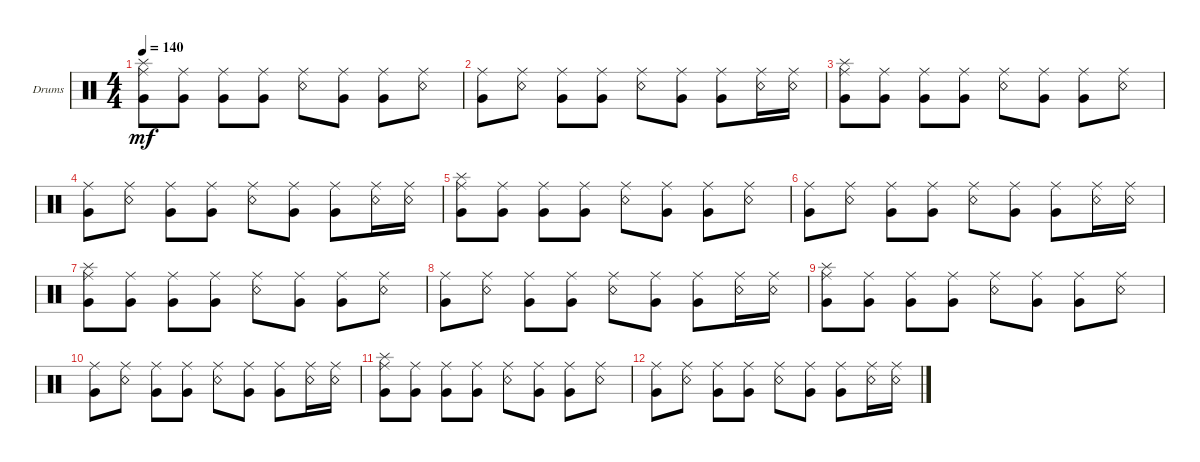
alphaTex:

\defaultSystemsLayout 4
\bracketExtendMode groupsimilarinstruments
\firstSystemTrackNameOrientation horizontal
\otherSystemsTrackNameOrientation horizontal
\track ("Drumkit" "Drums") {instrument percussion}
\staff {score}
\articulation defaults
\ts (4 4)
\tempo 140
\clef neutral
\ks c
("Very Low Tom (hit)" "Ride (middle)" "Splash (hit)").8{dy mf} ("Very Low Tom (hit)" "Ride (middle)").8 ("Very Low Tom (hit)" "Ride (middle)").8 ("Very Low Tom (hit)" "Ride (middle)").8 ("Snare (rim shot)" "Ride (middle)").8 ("Very Low Tom (hit)" "Ride (middle)").8 ("Very Low Tom (hit)" "Ride (middle)").8 ("Snare (rim shot)" "Ride (middle)").8 |
("Very Low Tom (hit)" "Ride (middle)").8 ("Snare (rim shot)" "Ride (middle)").8 ("Very Low Tom (hit)" "Ride (middle)").8 ("Very Low Tom (hit)" "Ride (middle)").8 ("Snare (rim shot)" "Ride (middle)").8 ("Very Low Tom (hit)" "Ride (middle)").8 ("Very Low Tom (hit)" "Ride (middle)").8 ("Snare (rim shot)" "Ride (middle)").16 ("Snare (rim shot)" "Ride (middle)").16 |
("Very Low Tom (hit)" "Ride (middle)" "Splash (hit)").8 ("Very Low Tom (hit)" "Ride (middle)").8 ("Very Low Tom (hit)" "Ride (middle)").8 ("Very Low Tom (hit)" "Ride (middle)").8 ("Snare (rim shot)" "Ride (middle)").8 ("Very Low Tom (hit)" "Ride (middle)").8 ("Very Low Tom (hit)" "Ride (middle)").8 ("Snare (rim shot)" "Ride (middle)").8 |
("Very Low Tom (hit)" "Ride (middle)").8 ("Snare (rim shot)" "Ride (middle)").8 ("Very Low Tom (hit)" "Ride (middle)").8 ("Very Low Tom (hit)" "Ride (middle)").8 ("Snare (rim shot)" "Ride (middle)").8 ("Very Low Tom (hit)" "Ride (middle)").8 ("Very Low Tom (hit)" "Ride (middle)").8 ("Snare (rim shot)" "Ride (middle)").16 ("Snare (rim shot)" "Ride (middle)").16 |
("Very Low Tom (hit)" "Ride (middle)" "Splash (hit)").8 ("Very Low Tom (hit)" "Ride (middle)").8 ("Very Low Tom (hit)" "Ride (middle)").8 ("Very Low Tom (hit)" "Ride (middle)").8 ("Snare (rim shot)" "Ride (middle)").8 ("Very Low Tom (hit)" "Ride (middle)").8 ("Very Low Tom (hit)" "Ride (middle)").8 ("Snare (rim shot)" "Ride (middle)").8 |
("Very Low Tom (hit)" "Ride (middle)").8 ("Snare (rim shot)" "Ride (middle)").8 ("Very Low Tom (hit)" "Ride (middle)").8 ("Very Low Tom (hit)" "Ride (middle)").8 ("Snare (rim shot)" "Ride (middle)").8 ("Very Low Tom (hit)" "Ride (middle)").8 ("Very Low Tom (hit)" "Ride (middle)").8 ("Snare (rim shot)" "Ride (middle)").16 ("Snare (rim shot)" "Ride (middle)").16 |
("Very Low Tom (hit)" "Ride (middle)" "Splash (hit)").8 ("Very Low Tom (hit)" "Ride (middle)").8 ("Very Low Tom (hit)" "Ride (middle)").8 ("Very Low Tom (hit)" "Ride (middle)").8 ("Snare (rim shot)" "Ride (middle)").8 ("Very Low Tom (hit)" "Ride (middle)").8 ("Very Low Tom (hit)" "Ride (middle)").8 ("Snare (rim shot)" "Ride (middle)").8 |
("Very Low Tom (hit)" "Ride (middle)").8 ("Snare (rim shot)" "Ride (middle)").8 ("Very Low Tom (hit)" "Ride (middle)").8 ("Very Low Tom (hit)" "Ride (middle)").8 ("Snare (rim shot)" "Ride (middle)").8 ("Very Low Tom (hit)" "Ride (middle)").8 ("Very Low Tom (hit)" "Ride (middle)").8 ("Snare (rim shot)" "Ride (middle)").16 ("Snare (rim shot)" "Ride (middle)").16 |
("Very Low Tom (hit)" "Ride (middle)" "Splash (hit)").8 ("Very Low Tom (hit)" "Ride (middle)").8 ("Very Low Tom (hit)" "Ride (middle)").8 ("Very Low Tom (hit)" "Ride (middle)").8 ("Snare (rim shot)" "Ride (middle)").8 ("Very Low Tom (hit)" "Ride (middle)").8 ("Very Low Tom (hit)" "Ride (middle)").8 ("Snare (rim shot)" "Ride (middle)").8 |
("Very Low Tom (hit)" "Ride (middle)").8 ("Snare (rim shot)" "Ride (middle)").8 ("Very Low Tom (hit)" "Ride (middle)").8 ("Very Low Tom (hit)" "Ride (middle)").8 ("Snare (rim shot)" "Ride (middle)").8 ("Very Low Tom (hit)" "Ride (middle)").8 ("Very Low Tom (hit)" "Ride (middle)").8 ("Snare (rim shot)" "Ride (middle)").16 ("Snare (rim shot)" "Ride (middle)").16 |
("Very Low Tom (hit)" "Ride (middle)" "Splash (hit)").8 ("Very Low Tom (hit)" "Ride (middle)").8 ("Very Low Tom (hit)" "Ride (middle)").8 ("Very Low Tom (hit)" "Ride (middle)").8 ("Snare (rim shot)" "Ride (middle)").8 ("Very Low Tom (hit)" "Ride (middle)").8 ("Very Low Tom (hit)" "Ride (middle)").8 ("Snare (rim shot)" "Ride (middle)").8 |
("Very Low Tom (hit)" "Ride (middle)").8 ("Snare (rim shot)" "Ride (middle)").8 ("Very Low Tom (hit)" "Ride (middle)").8 ("Very Low Tom (hit)" "Ride (middle)").8 ("Snare (rim shot)" "Ride (middle)").8 ("Very Low Tom (hit)" "Ride (middle)").8 ("Very Low Tom (hit)" "Ride (middle)").8 ("Snare (rim shot)" "Ride (middle)").16 ("Snare (rim shot)" "Ride (middle)").16
